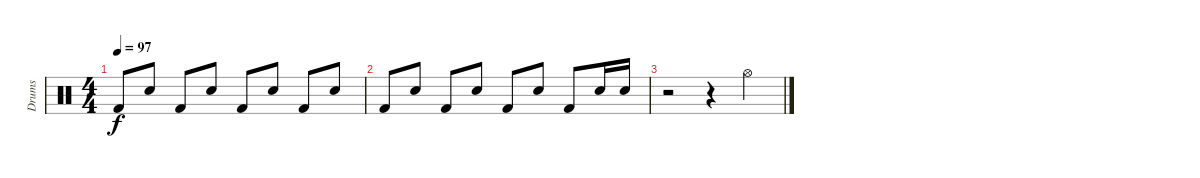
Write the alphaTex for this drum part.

\track ("Drums" "Drums") {instrument percussion}
\staff {score}
\articulation defaults
\ts (4 4)
\tempo 97
\clef neutral
\ks c "Kick (hit) 2".8{dy f} "Electric Snare (hit)".8 "Kick (hit) 2".8 "Electric Snare (hit)".8 "Kick (hit) 2".8 "Electric Snare (hit)".8 "Kick (hit) 2".8 "Electric Snare (hit)".8
|
"Kick (hit) 2".8 "Electric Snare (hit)".8 "Kick (hit) 2".8 "Electric Snare (hit)".8 "Kick (hit) 2".8 "Electric Snare (hit)".8 "Kick (hit) 2".8 "Electric Snare (hit)".16 "Electric Snare (hit)".16 |
r.2 r.4 "Hi-Hat (open)".4
